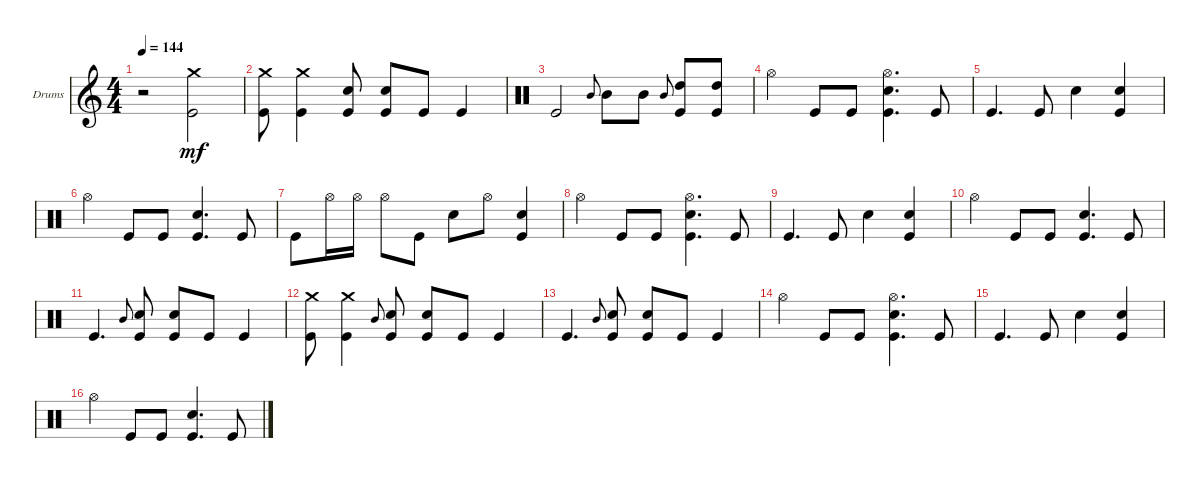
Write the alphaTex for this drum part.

\bracketExtendMode groupsimilarinstruments
\firstSystemTrackNameOrientation horizontal
\otherSystemsTrackNameOrientation horizontal
\track ("Drums" "Drums") {instrument percussion}
\staff {score}
\articulation defaults
\ts (4 4)
\tempo 144
\clef g2
\ks c
r.2{dy mf} ("Kick (hit)" "Crash medium (hit)").2 |
("Kick (hit)" "Crash medium (hit)").8 ("Kick (hit)" "Crash medium (hit)").4 ("Kick (hit)" "Snare (hit) 2").8 ("Kick (hit)" "Snare (hit) 2").8 "Kick (hit)".8 "Kick (hit)".4 |
\clef neutral "Kick (hit)".2 "Mid Tom (hit)".8{gr onbeat} "Mid Tom (hit)".8 "Mid Tom (hit)".8 "Mid Tom (hit)".8{gr onbeat}
("High Tom (hit)" "Kick (hit)").8 ("High Tom (hit)" "Kick (hit)").8 |
"Hi-Hat (open)".4 "Kick (hit)".8 "Kick (hit)".8 ("Kick (hit)" "Snare (hit) 2" "Hi-Hat (open)").4{d} "Kick (hit)".8 |
"Kick (hit)".4{d} "Kick (hit)".8 "Snare (hit) 2".4 ("Kick (hit)" "Snare (hit) 2").4 |
"Hi-Hat (open)".4 "Kick (hit)".8 "Kick (hit)".8 ("Kick (hit)" "Snare (hit) 2").4{d} "Kick (hit)".8 |
"Kick (hit)".8 "Hi-Hat (open)".16 "Hi-Hat (open)".16 "Hi-Hat (open)".8 "Kick (hit)".8 "Snare (hit) 2".8 "Hi-Hat (open)".8 ("Kick (hit)" "Snare (hit) 2").4 |
"Hi-Hat (open)".4 "Kick (hit)".8 "Kick (hit)".8 ("Kick (hit)" "Snare (hit) 2" "Hi-Hat (open)").4{d} "Kick (hit)".8 |
"Kick (hit)".4{d} "Kick (hit)".8 "Snare (hit) 2".4 ("Kick (hit)" "Snare (hit) 2").4 |
"Hi-Hat (open)".4 "Kick (hit)".8 "Kick (hit)".8 ("Kick (hit)" "Snare (hit) 2").4{d} "Kick (hit)".8 |
"Kick (hit)".4{d} "Mid Tom (hit)".8{gr onbeat} ("Kick (hit)" "Snare (hit) 2").8 ("Kick (hit)" "Snare (hit) 2").8 "Kick (hit)".8 "Kick (hit)".4 |
("Kick (hit)" "Crash medium (hit)").8 ("Kick (hit)" "Crash medium (hit)").4 "Mid Tom (hit)".8{gr onbeat} ("Kick (hit)" "Snare (hit) 2").8 ("Kick (hit)" "Snare (hit) 2").8 "Kick (hit)".8 "Kick (hit)".4 |
"Kick (hit)".4{d} "Mid Tom (hit)".8{gr onbeat} ("Kick (hit)" "Snare (hit) 2").8 ("Kick (hit)" "Snare (hit) 2").8 "Kick (hit)".8 "Kick (hit)".4 |
"Hi-Hat (open)".4 "Kick (hit)".8 "Kick (hit)".8 ("Kick (hit)" "Snare (hit) 2" "Hi-Hat (open)").4{d} "Kick (hit)".8 |
"Kick (hit)".4{d} "Kick (hit)".8 "Snare (hit) 2".4 ("Kick (hit)" "Snare (hit) 2").4 |
"Hi-Hat (open)".4 "Kick (hit)".8 "Kick (hit)".8 ("Kick (hit)" "Snare (hit) 2").4{d} "Kick (hit)".8
